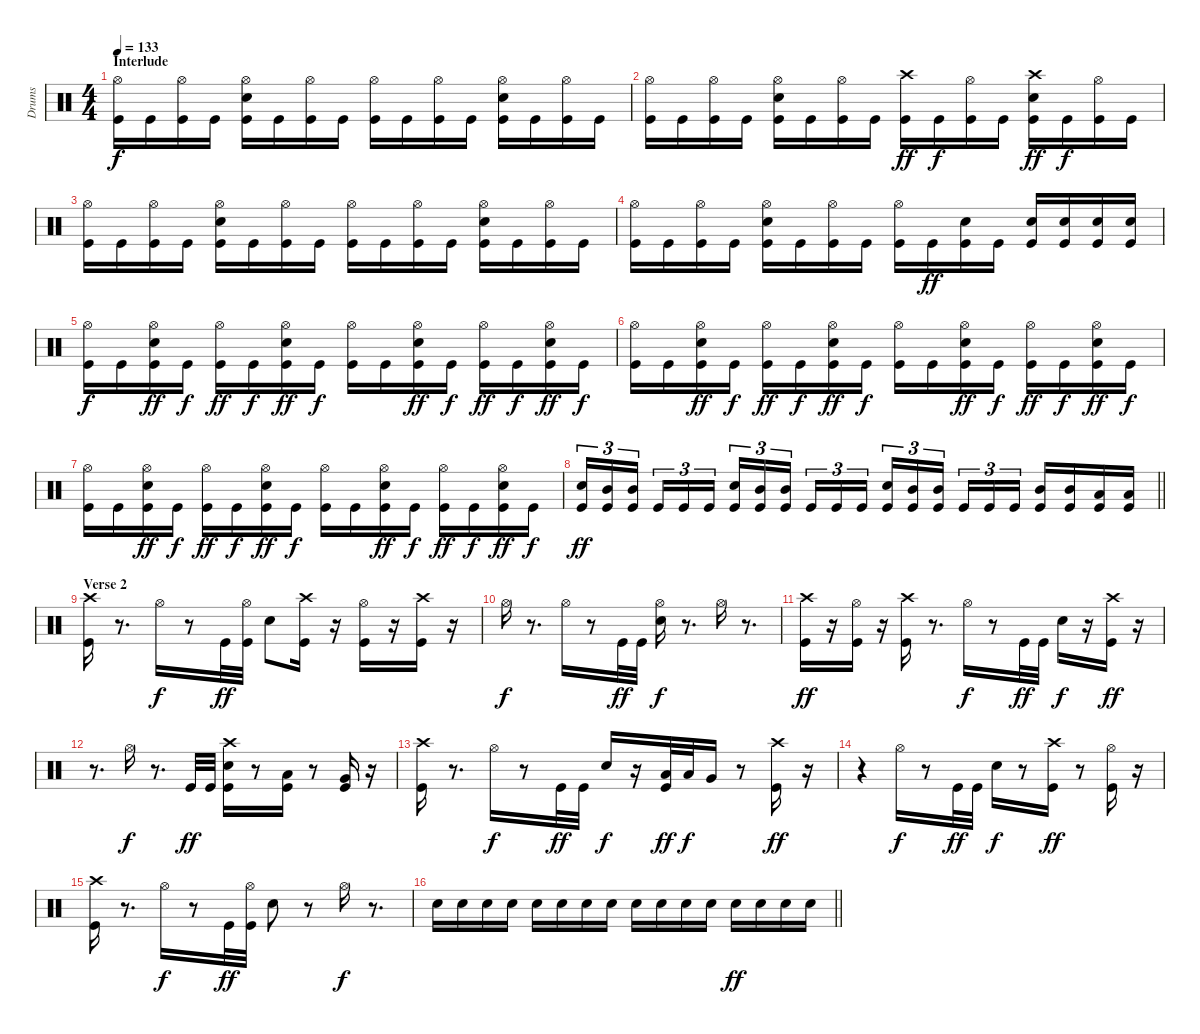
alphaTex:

\track ("Drums" "Drums") {instrument percussion}
\staff {score}
\articulation defaults
\ts (4 4)
\section ("" "Interlude")
\tempo 133
\clef neutral
\ks c
("Hi-Hat (open)" "Kick (hit)").16{dy f} "Kick (hit)".16 ("Hi-Hat (open)" "Kick (hit)").16 "Kick (hit)".16 ("Hi-Hat (open)" "Snare (hit) 2" "Kick (hit)").16 "Kick (hit)".16 ("Hi-Hat (open)" "Kick (hit)").16 "Kick (hit)".16 ("Hi-Hat (open)" "Kick (hit)").16 "Kick (hit)".16 ("Hi-Hat (open)" "Kick (hit)").16 "Kick (hit)".16 ("Hi-Hat (open)" "Snare (hit) 2" "Kick (hit)").16 "Kick (hit)".16 ("Hi-Hat (open)" "Kick (hit)").16 "Kick (hit)".16 |
("Hi-Hat (open)" "Kick (hit)").16 "Kick (hit)".16 ("Hi-Hat (open)" "Kick (hit)").16 "Kick (hit)".16 ("Hi-Hat (open)" "Snare (hit) 2" "Kick (hit)").16 "Kick (hit)".16 ("Hi-Hat (open)" "Kick (hit)").16 "Kick (hit)".16 ("Crash high (hit)" "Kick (hit)").16{dy ff} "Kick (hit)".16{dy f} ("Hi-Hat (open)" "Kick (hit)").16 "Kick (hit)".16 ("Crash high (hit)" "Snare (hit) 2" "Kick (hit)").16{dy ff} "Kick (hit)".16{dy f} ("Hi-Hat (open)" "Kick (hit)").16 "Kick (hit)".16 |
("Hi-Hat (open)" "Kick (hit)").16 "Kick (hit)".16 ("Hi-Hat (open)" "Kick (hit)").16 "Kick (hit)".16 ("Hi-Hat (open)" "Snare (hit) 2" "Kick (hit)").16 "Kick (hit)".16 ("Hi-Hat (open)" "Kick (hit)").16 "Kick (hit)".16 ("Hi-Hat (open)" "Kick (hit)").16 "Kick (hit)".16 ("Hi-Hat (open)" "Kick (hit)").16 "Kick (hit)".16 ("Hi-Hat (open)" "Snare (hit) 2" "Kick (hit)").16 "Kick (hit)".16 ("Hi-Hat (open)" "Kick (hit)").16 "Kick (hit)".16 |
("Hi-Hat (open)" "Kick (hit)").16 "Kick (hit)".16 ("Hi-Hat (open)" "Kick (hit)").16 "Kick (hit)".16 ("Hi-Hat (open)" "Snare (hit) 2" "Kick (hit)").16 "Kick (hit)".16 ("Hi-Hat (open)" "Kick (hit)").16 "Kick (hit)".16 ("Hi-Hat (open)" "Kick (hit)").16 "Kick (hit)".16{dy ff} ("Snare (hit) 2" "Kick (hit)").16 "Kick (hit)".16 ("Snare (hit) 2" "Kick (hit)").16 ("Snare (hit) 2" "Kick (hit)").16 ("Snare (hit) 2" "Kick (hit)").16 ("Snare (hit) 2" "Kick (hit)").16 |
("Hi-Hat (open)" "Kick (hit)").16{dy f} "Kick (hit)".16 ("Hi-Hat (open)" "Snare (hit) 2" "Kick (hit)").16{dy ff} "Kick (hit)".16{dy f} ("Hi-Hat (open)" "Kick (hit)").16{dy ff} "Kick (hit)".16{dy f} ("Hi-Hat (open)" "Snare (hit) 2" "Kick (hit)").16{dy ff} "Kick (hit)".16{dy f} ("Hi-Hat (open)" "Kick (hit)").16 "Kick (hit)".16 ("Hi-Hat (open)" "Snare (hit) 2" "Kick (hit)").16{dy ff} "Kick (hit)".16{dy f} ("Hi-Hat (open)" "Kick (hit)").16{dy ff} "Kick (hit)".16{dy f} ("Hi-Hat (open)" "Snare (hit) 2" "Kick (hit)").16{dy ff} "Kick (hit)".16{dy f} |
("Hi-Hat (open)" "Kick (hit)").16 "Kick (hit)".16 ("Hi-Hat (open)" "Snare (hit) 2" "Kick (hit)").16{dy ff} "Kick (hit)".16{dy f} ("Hi-Hat (open)" "Kick (hit)").16{dy ff} "Kick (hit)".16{dy f} ("Hi-Hat (open)" "Snare (hit) 2" "Kick (hit)").16{dy ff} "Kick (hit)".16{dy f} ("Hi-Hat (open)" "Kick (hit)").16 "Kick (hit)".16 ("Hi-Hat (open)" "Snare (hit) 2" "Kick (hit)").16{dy ff} "Kick (hit)".16{dy f} ("Hi-Hat (open)" "Kick (hit)").16{dy ff} "Kick (hit)".16{dy f} ("Hi-Hat (open)" "Snare (hit) 2" "Kick (hit)").16{dy ff} "Kick (hit)".16{dy f} |
("Hi-Hat (open)" "Kick (hit)").16 "Kick (hit)".16 ("Hi-Hat (open)" "Snare (hit) 2" "Kick (hit)").16{dy ff} "Kick (hit)".16{dy f} ("Hi-Hat (open)" "Kick (hit)").16{dy ff} "Kick (hit)".16{dy f} ("Hi-Hat (open)" "Snare (hit) 2" "Kick (hit)").16{dy ff} "Kick (hit)".16{dy f} ("Hi-Hat (open)" "Kick (hit)").16 "Kick (hit)".16 ("Hi-Hat (open)" "Snare (hit) 2" "Kick (hit)").16{dy ff} "Kick (hit)".16{dy f} ("Hi-Hat (open)" "Kick (hit)").16{dy ff} "Kick (hit)".16{dy f} ("Hi-Hat (open)" "Snare (hit) 2" "Kick (hit)").16{dy ff} "Kick (hit)".16{dy f} |
\barLineRight lightlight
("Snare (hit) 2" "Kick (hit)").16{tu (3 2) dy ff} ("Mid Tom (hit)" "Kick (hit)").16{tu (3 2)} ("Mid Tom (hit)" "Kick (hit)").16{tu (3 2) beam splitsecondary} "Kick (hit)".16{tu (3 2)} "Kick (hit)".16{tu (3 2)} "Kick (hit)".16{tu (3 2)} ("Snare (hit) 2" "Kick (hit)").16{tu (3 2)} ("Mid Tom (hit)" "Kick (hit)").16{tu (3 2)} ("Mid Tom (hit)" "Kick (hit)").16{tu (3 2) beam splitsecondary} "Kick (hit)".16{tu (3 2)} "Kick (hit)".16{tu (3 2)} "Kick (hit)".16{tu (3 2)} ("Snare (hit) 2" "Kick (hit)").16{tu (3 2)} ("Mid Tom (hit)" "Kick (hit)").16{tu (3 2)} ("Mid Tom (hit)" "Kick (hit)").16{tu (3 2) beam splitsecondary} "Kick (hit)".16{tu (3 2)} "Kick (hit)".16{tu (3 2)} "Kick (hit)".16{tu (3 2)} ("Mid Tom (hit)" "Kick (hit)").16 ("Mid Tom (hit)" "Kick (hit)").16 ("Low Tom (hit)" "Kick (hit)").16 ("Low Tom (hit)" "Kick (hit)").16 |
\section ("" "Verse 2")
("Crash high (hit)" "Kick (hit)").16 r.8{d} "Hi-Hat (open)".16{dy f} r.8 "Kick (hit)".32{dy ff} ("Hi-Hat (open)" "Kick (hit)").32 "Snare (hit) 2".8 ("Crash high (hit)" "Kick (hit)").16 r.16 ("Hi-Hat (open)" "Kick (hit)").16 r.16 ("Crash high (hit)" "Kick (hit)").16 r.16 |
"Hi-Hat (open)".16{dy f} r.8{d} "Hi-Hat (open)".16 r.8 "Kick (hit)".32{dy ff} "Kick (hit)".32 ("Hi-Hat (open)" "Snare (hit) 2").16{dy f} r.8{d} "Hi-Hat (open)".16 r.8{d} |
("Crash high (hit)" "Kick (hit)").16{dy ff} r.16 ("Hi-Hat (open)" "Kick (hit)").16 r.16 ("Crash high (hit)" "Kick (hit)").16 r.8{d} "Hi-Hat (open)".16{dy f} r.8 "Kick (hit)".32{dy ff} "Kick (hit)".32 "Snare (hit) 2".16{dy f} r.16 ("Crash high (hit)" "Kick (hit)").16{dy ff} r.16 |
r.8{d} "Hi-Hat (open)".16{dy f} r.8{d} "Kick (hit)".32{dy ff} "Kick (hit)".32 ("Crash high (hit)" "Snare (hit) 2" "Kick (hit)").16 r.8 ("Low Tom (hit)" "Kick (hit)").16 r.8 ("Very Low Tom (hit)" "Kick (hit)").16 r.16 |
("Crash high (hit)" "Kick (hit)").16 r.8{d} "Hi-Hat (open)".16{dy f} r.8 "Kick (hit)".32{dy ff} "Kick (hit)".32 "Snare (hit) 2".16{dy f} r.16 ("Low Tom (hit)" "Kick (hit)").32{dy ff} "Low Tom (hit)".32{dy f} "Very Low Tom (hit)".16 r.8 ("Crash high (hit)" "Kick (hit)").16{dy ff} r.16 |
r.4 "Hi-Hat (open)".16{dy f} r.8 "Kick (hit)".32{dy ff} "Kick (hit)".32 "Snare (hit) 2".16{dy f} r.8 ("Crash high (hit)" "Kick (hit)").16{dy ff} r.8 ("Hi-Hat (open)" "Kick (hit)").16 r.16 |
("Crash high (hit)" "Kick (hit)").16 r.8{d} "Hi-Hat (open)".16{dy f} r.8 "Kick (hit)".32{dy ff} ("Hi-Hat (open)" "Kick (hit)").32 "Snare (hit) 2".8 r.8 "Hi-Hat (open)".16{dy f} r.8{d} |
\barLineRight lightlight "Snare (hit) 2".16 "Snare (hit) 2".16 "Snare (hit) 2".16 "Snare (hit) 2".16 "Snare (hit) 2".16 "Snare (hit) 2".16 "Snare (hit) 2".16 "Snare (hit) 2".16 "Snare (hit) 2".16 "Snare (hit) 2".16 "Snare (hit) 2".16 "Snare (hit) 2".16 "Snare (hit) 2".16{dy ff} "Snare (hit) 2".16 "Snare (hit) 2".16 "Snare (hit) 2".16
